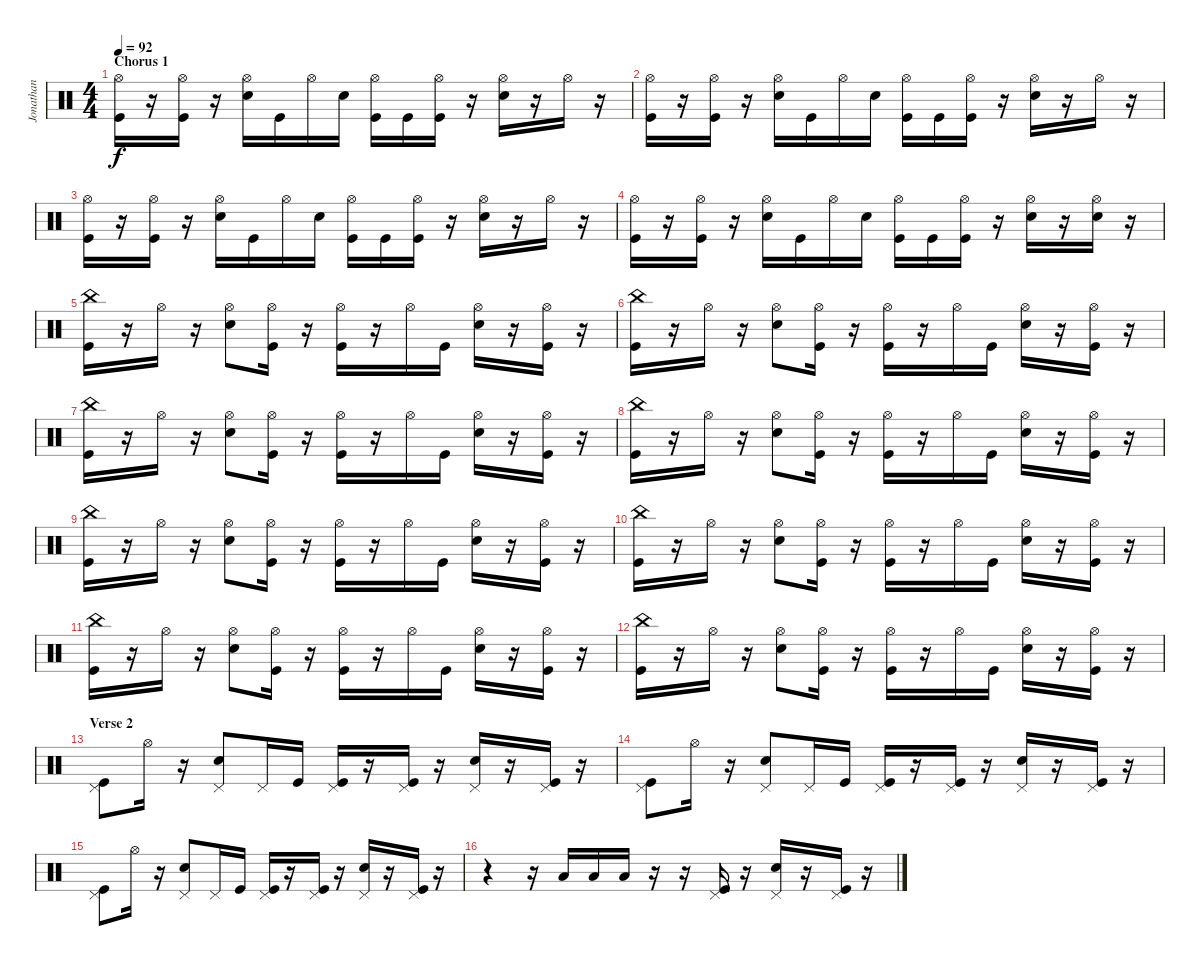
\track ("Jonathan" "Jonathan") {instrument percussion}
\staff {score}
\articulation defaults
\ts (4 4)
\section ("" "Chorus 1")
\tempo 92
\clef neutral
\ks c
("Hi-Hat (open)" "Kick (hit)").16{dy f} r.16 ("Hi-Hat (open)" "Kick (hit)").16 r.16 ("Hi-Hat (open)" "Electric Snare (hit)").16 "Kick (hit)".16 "Hi-Hat (open)".16 "Electric Snare (hit)".16 ("Hi-Hat (open)" "Kick (hit)").16 "Kick (hit)".16 ("Hi-Hat (open)" "Kick (hit)").16 r.16 ("Hi-Hat (open)" "Electric Snare (hit)").16 r.16 "Hi-Hat (open)".16 r.16 |
("Hi-Hat (open)" "Kick (hit)").16 r.16 ("Hi-Hat (open)" "Kick (hit)").16 r.16 ("Hi-Hat (open)" "Electric Snare (hit)").16 "Kick (hit)".16 "Hi-Hat (open)".16 "Electric Snare (hit)".16 ("Hi-Hat (open)" "Kick (hit)").16 "Kick (hit)".16 ("Hi-Hat (open)" "Kick (hit)").16 r.16 ("Hi-Hat (open)" "Electric Snare (hit)").16 r.16 "Hi-Hat (open)".16 r.16 |
("Hi-Hat (open)" "Kick (hit)").16 r.16 ("Hi-Hat (open)" "Kick (hit)").16 r.16 ("Hi-Hat (open)" "Electric Snare (hit)").16 "Kick (hit)".16 "Hi-Hat (open)".16 "Electric Snare (hit)".16 ("Hi-Hat (open)" "Kick (hit)").16 "Kick (hit)".16 ("Hi-Hat (open)" "Kick (hit)").16 r.16 ("Hi-Hat (open)" "Electric Snare (hit)").16 r.16 "Hi-Hat (open)".16 r.16 |
("Hi-Hat (open)" "Kick (hit)").16 r.16 ("Hi-Hat (open)" "Kick (hit)").16 r.16 ("Hi-Hat (open)" "Electric Snare (hit)").16 "Kick (hit)".16 "Hi-Hat (open)".16 "Electric Snare (hit)".16 ("Hi-Hat (open)" "Kick (hit)").16 "Kick (hit)".16 ("Hi-Hat (open)" "Kick (hit)").16 r.16 ("Hi-Hat (open)" "Electric Snare (hit)").16 r.16 ("Hi-Hat (open)" "Electric Snare (hit)").16 r.16 |
("China (hit)" "Kick (hit)").16 r.16 "Hi-Hat (open)".16 r.16 ("Hi-Hat (open)" "Electric Snare (hit)").8 ("Hi-Hat (open)" "Kick (hit)").16 r.16 ("Hi-Hat (open)" "Kick (hit)").16 r.16 "Hi-Hat (open)".16 "Kick (hit)".16 ("Hi-Hat (open)" "Electric Snare (hit)").16 r.16 ("Hi-Hat (open)" "Kick (hit)").16 r.16 |
("China (hit)" "Kick (hit)").16 r.16 "Hi-Hat (open)".16 r.16 ("Hi-Hat (open)" "Electric Snare (hit)").8 ("Hi-Hat (open)" "Kick (hit)").16 r.16 ("Hi-Hat (open)" "Kick (hit)").16 r.16 "Hi-Hat (open)".16 "Kick (hit)".16 ("Hi-Hat (open)" "Electric Snare (hit)").16 r.16 ("Hi-Hat (open)" "Kick (hit)").16 r.16 |
("China (hit)" "Kick (hit)").16 r.16 "Hi-Hat (open)".16 r.16 ("Hi-Hat (open)" "Electric Snare (hit)").8 ("Hi-Hat (open)" "Kick (hit)").16 r.16 ("Hi-Hat (open)" "Kick (hit)").16 r.16 "Hi-Hat (open)".16 "Kick (hit)".16 ("Hi-Hat (open)" "Electric Snare (hit)").16 r.16 ("Hi-Hat (open)" "Kick (hit)").16 r.16 |
("China (hit)" "Kick (hit)").16 r.16 "Hi-Hat (open)".16 r.16 ("Hi-Hat (open)" "Electric Snare (hit)").8 ("Hi-Hat (open)" "Kick (hit)").16 r.16 ("Hi-Hat (open)" "Kick (hit)").16 r.16 "Hi-Hat (open)".16 "Kick (hit)".16 ("Hi-Hat (open)" "Electric Snare (hit)").16 r.16 ("Hi-Hat (open)" "Kick (hit)").16 r.16 |
("China (hit)" "Kick (hit)").16 r.16 "Hi-Hat (open)".16 r.16 ("Hi-Hat (open)" "Electric Snare (hit)").8 ("Hi-Hat (open)" "Kick (hit)").16 r.16 ("Hi-Hat (open)" "Kick (hit)").16 r.16 "Hi-Hat (open)".16 "Kick (hit)".16 ("Hi-Hat (open)" "Electric Snare (hit)").16 r.16 ("Hi-Hat (open)" "Kick (hit)").16 r.16 |
("China (hit)" "Kick (hit)").16 r.16 "Hi-Hat (open)".16 r.16 ("Hi-Hat (open)" "Electric Snare (hit)").8 ("Hi-Hat (open)" "Kick (hit)").16 r.16 ("Hi-Hat (open)" "Kick (hit)").16 r.16 "Hi-Hat (open)".16 "Kick (hit)".16 ("Hi-Hat (open)" "Electric Snare (hit)").16 r.16 ("Hi-Hat (open)" "Kick (hit)").16 r.16 |
("China (hit)" "Kick (hit)").16 r.16 "Hi-Hat (open)".16 r.16 ("Hi-Hat (open)" "Electric Snare (hit)").8 ("Hi-Hat (open)" "Kick (hit)").16 r.16 ("Hi-Hat (open)" "Kick (hit)").16 r.16 "Hi-Hat (open)".16 "Kick (hit)".16 ("Hi-Hat (open)" "Electric Snare (hit)").16 r.16 ("Hi-Hat (open)" "Kick (hit)").16 r.16 |
("China (hit)" "Kick (hit)").16 r.16 "Hi-Hat (open)".16 r.16 ("Hi-Hat (open)" "Electric Snare (hit)").8 ("Hi-Hat (open)" "Kick (hit)").16 r.16 ("Hi-Hat (open)" "Kick (hit)").16 r.16 "Hi-Hat (open)".16 "Kick (hit)".16 ("Hi-Hat (open)" "Electric Snare (hit)").16 r.16 ("Hi-Hat (open)" "Kick (hit)").16 r.16 |
\section ("" "Verse 2")
("Pedal Hi-Hat (hit)" "Kick (hit)").8 "Hi-Hat (open)".16 r.16 ("Pedal Hi-Hat (hit)" "Electric Snare (hit)").8 "Pedal Hi-Hat (hit)".16 "Kick (hit)".16 ("Pedal Hi-Hat (hit)" "Kick (hit)").16 r.16 ("Pedal Hi-Hat (hit)" "Kick (hit)").16 r.16 ("Pedal Hi-Hat (hit)" "Electric Snare (hit)").16 r.16 ("Pedal Hi-Hat (hit)" "Kick (hit)").16 r.16 |
("Pedal Hi-Hat (hit)" "Kick (hit)").8 "Hi-Hat (open)".16 r.16 ("Pedal Hi-Hat (hit)" "Electric Snare (hit)").8 "Pedal Hi-Hat (hit)".16 "Kick (hit)".16 ("Pedal Hi-Hat (hit)" "Kick (hit)").16 r.16 ("Pedal Hi-Hat (hit)" "Kick (hit)").16 r.16 ("Pedal Hi-Hat (hit)" "Electric Snare (hit)").16 r.16 ("Pedal Hi-Hat (hit)" "Kick (hit)").16 r.16 |
("Pedal Hi-Hat (hit)" "Kick (hit)").8 "Hi-Hat (open)".16 r.16 ("Pedal Hi-Hat (hit)" "Electric Snare (hit)").8 "Pedal Hi-Hat (hit)".16 "Kick (hit)".16 ("Pedal Hi-Hat (hit)" "Kick (hit)").16 r.16 ("Pedal Hi-Hat (hit)" "Kick (hit)").16 r.16 ("Pedal Hi-Hat (hit)" "Electric Snare (hit)").16 r.16 ("Pedal Hi-Hat (hit)" "Kick (hit)").16 r.16 |
r.4 r.16 "Low Floor Tom (hit)".16 "Low Floor Tom (hit)".16 "Low Floor Tom (hit)".16 r.16 r.16 ("Pedal Hi-Hat (hit)" "Kick (hit)").16 r.16 ("Pedal Hi-Hat (hit)" "Electric Snare (hit)").16 r.16 ("Pedal Hi-Hat (hit)" "Kick (hit)").16 r.16
